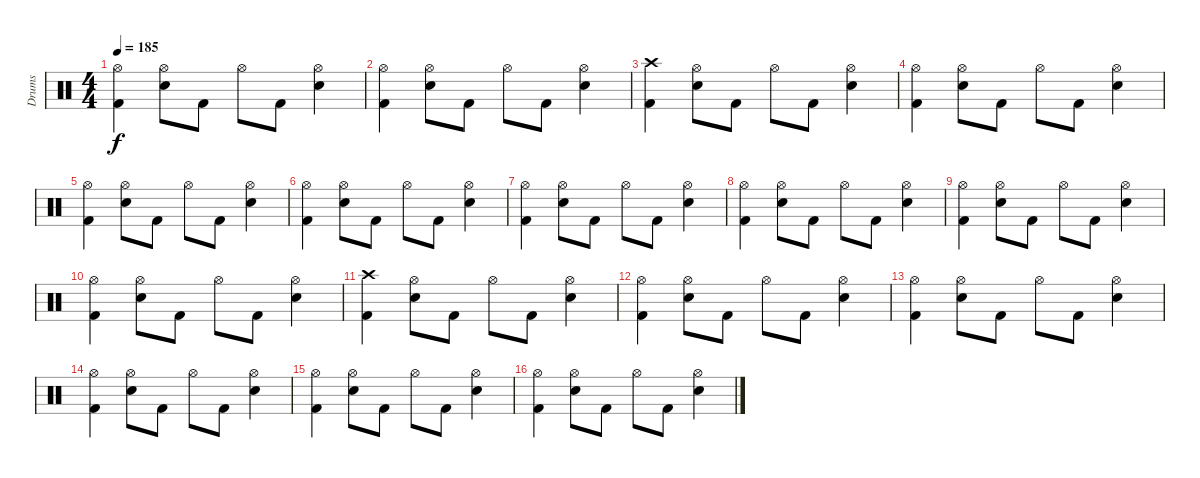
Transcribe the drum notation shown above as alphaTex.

\track ("Drums" "Drums") {instrument percussion}
\staff {score}
\articulation defaults
\ts (4 4)
\tempo 185
\clef neutral
\ks c
("Kick (hit) 2" "Hi-Hat (open)").4{dy f} ("Electric Snare (hit)" "Hi-Hat (open)").8 "Kick (hit) 2".8 "Hi-Hat (open)".8 "Kick (hit) 2".8 ("Electric Snare (hit)" "Hi-Hat (open)").4 |
("Kick (hit) 2" "Hi-Hat (open)").4 ("Electric Snare (hit)" "Hi-Hat (open)").8 "Kick (hit) 2".8 "Hi-Hat (open)".8 "Kick (hit) 2".8 ("Electric Snare (hit)" "Hi-Hat (open)").4 |
("Kick (hit) 2" "Crash high (hit)").4 ("Electric Snare (hit)" "Hi-Hat (open)").8 "Kick (hit) 2".8 "Hi-Hat (open)".8 "Kick (hit) 2".8 ("Electric Snare (hit)" "Hi-Hat (open)").4 |
("Kick (hit) 2" "Hi-Hat (open)").4 ("Electric Snare (hit)" "Hi-Hat (open)").8 "Kick (hit) 2".8 "Hi-Hat (open)".8 "Kick (hit) 2".8 ("Electric Snare (hit)" "Hi-Hat (open)").4 |
("Kick (hit) 2" "Hi-Hat (open)").4 ("Electric Snare (hit)" "Hi-Hat (open)").8 "Kick (hit) 2".8 "Hi-Hat (open)".8 "Kick (hit) 2".8 ("Electric Snare (hit)" "Hi-Hat (open)").4 |
("Kick (hit) 2" "Hi-Hat (open)").4 ("Electric Snare (hit)" "Hi-Hat (open)").8 "Kick (hit) 2".8 "Hi-Hat (open)".8 "Kick (hit) 2".8 ("Electric Snare (hit)" "Hi-Hat (open)").4 |
("Kick (hit) 2" "Hi-Hat (open)").4 ("Electric Snare (hit)" "Hi-Hat (open)").8 "Kick (hit) 2".8 "Hi-Hat (open)".8 "Kick (hit) 2".8 ("Electric Snare (hit)" "Hi-Hat (open)").4 |
("Kick (hit) 2" "Hi-Hat (open)").4 ("Electric Snare (hit)" "Hi-Hat (open)").8 "Kick (hit) 2".8 "Hi-Hat (open)".8 "Kick (hit) 2".8 ("Electric Snare (hit)" "Hi-Hat (open)").4 |
("Kick (hit) 2" "Hi-Hat (open)").4 ("Electric Snare (hit)" "Hi-Hat (open)").8 "Kick (hit) 2".8 "Hi-Hat (open)".8 "Kick (hit) 2".8 ("Electric Snare (hit)" "Hi-Hat (open)").4 |
("Kick (hit) 2" "Hi-Hat (open)").4 ("Electric Snare (hit)" "Hi-Hat (open)").8 "Kick (hit) 2".8 "Hi-Hat (open)".8 "Kick (hit) 2".8 ("Electric Snare (hit)" "Hi-Hat (open)").4 |
("Kick (hit) 2" "Crash high (hit)").4 ("Electric Snare (hit)" "Hi-Hat (open)").8 "Kick (hit) 2".8 "Hi-Hat (open)".8 "Kick (hit) 2".8 ("Electric Snare (hit)" "Hi-Hat (open)").4 |
("Kick (hit) 2" "Hi-Hat (open)").4 ("Electric Snare (hit)" "Hi-Hat (open)").8 "Kick (hit) 2".8 "Hi-Hat (open)".8 "Kick (hit) 2".8 ("Electric Snare (hit)" "Hi-Hat (open)").4 |
("Kick (hit) 2" "Hi-Hat (open)").4 ("Electric Snare (hit)" "Hi-Hat (open)").8 "Kick (hit) 2".8 "Hi-Hat (open)".8 "Kick (hit) 2".8 ("Electric Snare (hit)" "Hi-Hat (open)").4 |
("Kick (hit) 2" "Hi-Hat (open)").4 ("Electric Snare (hit)" "Hi-Hat (open)").8 "Kick (hit) 2".8 "Hi-Hat (open)".8 "Kick (hit) 2".8 ("Electric Snare (hit)" "Hi-Hat (open)").4 |
("Kick (hit) 2" "Hi-Hat (open)").4 ("Electric Snare (hit)" "Hi-Hat (open)").8 "Kick (hit) 2".8 "Hi-Hat (open)".8 "Kick (hit) 2".8 ("Electric Snare (hit)" "Hi-Hat (open)").4 |
("Kick (hit) 2" "Hi-Hat (open)").4 ("Electric Snare (hit)" "Hi-Hat (open)").8 "Kick (hit) 2".8 "Hi-Hat (open)".8 "Kick (hit) 2".8 ("Electric Snare (hit)" "Hi-Hat (open)").4
